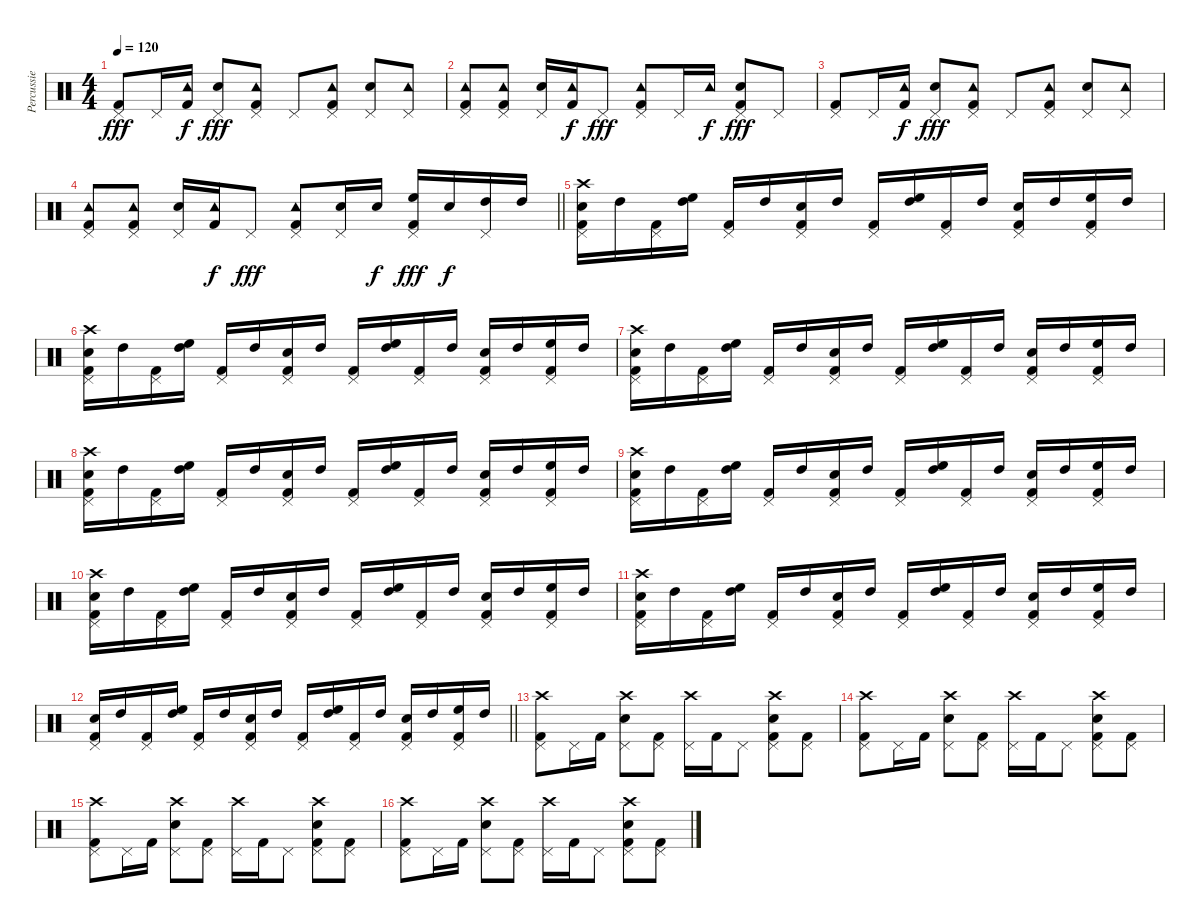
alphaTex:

\track ("Percussie" "Percussie") {instrument percussion}
\staff {score}
\articulation defaults
\ts (4 4)
\tempo 120
\clef neutral
\ks c
("Pedal Hi-Hat (hit)" "Kick (hit) 2").8{dy fff} "Pedal Hi-Hat (hit)".16 ("Tambourine (hit)" "Kick (hit) 2").16{dy f} ("Pedal Hi-Hat (hit)" "Snare (hit) 2").8{dy fff} ("Pedal Hi-Hat (hit)" "Tambourine (hit)" "Kick (hit) 2").8 "Pedal Hi-Hat (hit)".8 ("Pedal Hi-Hat (hit)" "Tambourine (hit)" "Kick (hit) 2").8 ("Pedal Hi-Hat (hit)" "Snare (hit) 2").8 ("Pedal Hi-Hat (hit)" "Tambourine (hit)").8 |
("Pedal Hi-Hat (hit)" "Tambourine (hit)" "Kick (hit) 2").8 ("Pedal Hi-Hat (hit)" "Tambourine (hit)" "Kick (hit) 2").8 ("Pedal Hi-Hat (hit)" "Snare (hit) 2").16 ("Tambourine (hit)" "Kick (hit) 2").16{dy f} "Pedal Hi-Hat (hit)".8{dy fff} ("Pedal Hi-Hat (hit)" "Tambourine (hit)" "Kick (hit) 2").8 "Pedal Hi-Hat (hit)".16 "Tambourine (hit)".16{dy f} ("Pedal Hi-Hat (hit)" "Snare (hit) 2" "Kick (hit) 2").8{dy fff} "Pedal Hi-Hat (hit)".8 |
("Pedal Hi-Hat (hit)" "Kick (hit) 2").8 "Pedal Hi-Hat (hit)".16 ("Tambourine (hit)" "Kick (hit) 2").16{dy f} ("Pedal Hi-Hat (hit)" "Snare (hit) 2").8{dy fff} ("Pedal Hi-Hat (hit)" "Tambourine (hit)" "Kick (hit) 2").8 "Pedal Hi-Hat (hit)".8 ("Pedal Hi-Hat (hit)" "Tambourine (hit)" "Kick (hit) 2").8 ("Pedal Hi-Hat (hit)" "Snare (hit) 2").8 ("Pedal Hi-Hat (hit)" "Tambourine (hit)").8 |
\barLineRight lightlight
("Pedal Hi-Hat (hit)" "Tambourine (hit)" "Kick (hit) 2").8 ("Pedal Hi-Hat (hit)" "Tambourine (hit)" "Kick (hit) 2").8 ("Pedal Hi-Hat (hit)" "Snare (hit) 2").16 ("Tambourine (hit)" "Kick (hit) 2").16{dy f} "Pedal Hi-Hat (hit)".8{dy fff} ("Pedal Hi-Hat (hit)" "Tambourine (hit)" "Kick (hit) 2").8 ("Pedal Hi-Hat (hit)" "Snare (hit) 2").16 "Snare (hit) 2".16{dy f} ("Pedal Hi-Hat (hit)" "High Floor Tom (hit)" "Kick (hit) 2").16{dy fff} "Snare (hit) 2".16{dy f} ("Pedal Hi-Hat (hit)" "High Tom (hit)").16 "High Tom (hit)".16 |
("Crash high (hit)" "Pedal Hi-Hat (hit)" "Snare (hit) 2" "Kick (hit) 2").16 "High Tom (hit)".16 ("Pedal Hi-Hat (hit)" "Kick (hit) 2").16 ("High Floor Tom (hit)" "High Tom (hit)").16 ("Pedal Hi-Hat (hit)" "Kick (hit) 2").16 "High Tom (hit)".16 ("Pedal Hi-Hat (hit)" "Snare (hit) 2" "Kick (hit) 2").16 "High Tom (hit)".16 ("Pedal Hi-Hat (hit)" "Kick (hit) 2").16 ("High Floor Tom (hit)" "High Tom (hit)").16 ("Pedal Hi-Hat (hit)" "Kick (hit) 2").16 "High Tom (hit)".16 ("Pedal Hi-Hat (hit)" "Snare (hit) 2" "Kick (hit) 2").16 "High Tom (hit)".16 ("Pedal Hi-Hat (hit)" "High Floor Tom (hit)" "Kick (hit) 2").16 "High Tom (hit)".16 |
("Crash high (hit)" "Pedal Hi-Hat (hit)" "Snare (hit) 2" "Kick (hit) 2").16 "High Tom (hit)".16 ("Pedal Hi-Hat (hit)" "Kick (hit) 2").16 ("High Floor Tom (hit)" "High Tom (hit)").16 ("Pedal Hi-Hat (hit)" "Kick (hit) 2").16 "High Tom (hit)".16 ("Pedal Hi-Hat (hit)" "Snare (hit) 2" "Kick (hit) 2").16 "High Tom (hit)".16 ("Pedal Hi-Hat (hit)" "Kick (hit) 2").16 ("High Floor Tom (hit)" "High Tom (hit)").16 ("Pedal Hi-Hat (hit)" "Kick (hit) 2").16 "High Tom (hit)".16 ("Pedal Hi-Hat (hit)" "Snare (hit) 2" "Kick (hit) 2").16 "High Tom (hit)".16 ("Pedal Hi-Hat (hit)" "High Floor Tom (hit)" "Kick (hit) 2").16 "High Tom (hit)".16 |
("Crash high (hit)" "Pedal Hi-Hat (hit)" "Snare (hit) 2" "Kick (hit) 2").16 "High Tom (hit)".16 ("Pedal Hi-Hat (hit)" "Kick (hit) 2").16 ("High Floor Tom (hit)" "High Tom (hit)").16 ("Pedal Hi-Hat (hit)" "Kick (hit) 2").16 "High Tom (hit)".16 ("Pedal Hi-Hat (hit)" "Snare (hit) 2" "Kick (hit) 2").16 "High Tom (hit)".16 ("Pedal Hi-Hat (hit)" "Kick (hit) 2").16 ("High Floor Tom (hit)" "High Tom (hit)").16 ("Pedal Hi-Hat (hit)" "Kick (hit) 2").16 "High Tom (hit)".16 ("Pedal Hi-Hat (hit)" "Snare (hit) 2" "Kick (hit) 2").16 "High Tom (hit)".16 ("Pedal Hi-Hat (hit)" "High Floor Tom (hit)" "Kick (hit) 2").16 "High Tom (hit)".16 |
("Crash high (hit)" "Pedal Hi-Hat (hit)" "Snare (hit) 2" "Kick (hit) 2").16 "High Tom (hit)".16 ("Pedal Hi-Hat (hit)" "Kick (hit) 2").16 ("High Floor Tom (hit)" "High Tom (hit)").16 ("Pedal Hi-Hat (hit)" "Kick (hit) 2").16 "High Tom (hit)".16 ("Pedal Hi-Hat (hit)" "Snare (hit) 2" "Kick (hit) 2").16 "High Tom (hit)".16 ("Pedal Hi-Hat (hit)" "Kick (hit) 2").16 ("High Floor Tom (hit)" "High Tom (hit)").16 ("Pedal Hi-Hat (hit)" "Kick (hit) 2").16 "High Tom (hit)".16 ("Pedal Hi-Hat (hit)" "Snare (hit) 2" "Kick (hit) 2").16 "High Tom (hit)".16 ("Pedal Hi-Hat (hit)" "High Floor Tom (hit)" "Kick (hit) 2").16 "High Tom (hit)".16 |
("Crash high (hit)" "Pedal Hi-Hat (hit)" "Snare (hit) 2" "Kick (hit) 2").16 "High Tom (hit)".16 ("Pedal Hi-Hat (hit)" "Kick (hit) 2").16 ("High Floor Tom (hit)" "High Tom (hit)").16 ("Pedal Hi-Hat (hit)" "Kick (hit) 2").16 "High Tom (hit)".16 ("Pedal Hi-Hat (hit)" "Snare (hit) 2" "Kick (hit) 2").16 "High Tom (hit)".16 ("Pedal Hi-Hat (hit)" "Kick (hit) 2").16 ("High Floor Tom (hit)" "High Tom (hit)").16 ("Pedal Hi-Hat (hit)" "Kick (hit) 2").16 "High Tom (hit)".16 ("Pedal Hi-Hat (hit)" "Snare (hit) 2" "Kick (hit) 2").16 "High Tom (hit)".16 ("Pedal Hi-Hat (hit)" "High Floor Tom (hit)" "Kick (hit) 2").16 "High Tom (hit)".16 |
("Crash high (hit)" "Pedal Hi-Hat (hit)" "Snare (hit) 2" "Kick (hit) 2").16 "High Tom (hit)".16 ("Pedal Hi-Hat (hit)" "Kick (hit) 2").16 ("High Floor Tom (hit)" "High Tom (hit)").16 ("Pedal Hi-Hat (hit)" "Kick (hit) 2").16 "High Tom (hit)".16 ("Pedal Hi-Hat (hit)" "Snare (hit) 2" "Kick (hit) 2").16 "High Tom (hit)".16 ("Pedal Hi-Hat (hit)" "Kick (hit) 2").16 ("High Floor Tom (hit)" "High Tom (hit)").16 ("Pedal Hi-Hat (hit)" "Kick (hit) 2").16 "High Tom (hit)".16 ("Pedal Hi-Hat (hit)" "Snare (hit) 2" "Kick (hit) 2").16 "High Tom (hit)".16 ("Pedal Hi-Hat (hit)" "High Floor Tom (hit)" "Kick (hit) 2").16 "High Tom (hit)".16 |
("Crash high (hit)" "Pedal Hi-Hat (hit)" "Snare (hit) 2" "Kick (hit) 2").16 "High Tom (hit)".16 ("Pedal Hi-Hat (hit)" "Kick (hit) 2").16 ("High Floor Tom (hit)" "High Tom (hit)").16 ("Pedal Hi-Hat (hit)" "Kick (hit) 2").16 "High Tom (hit)".16 ("Pedal Hi-Hat (hit)" "Snare (hit) 2" "Kick (hit) 2").16 "High Tom (hit)".16 ("Pedal Hi-Hat (hit)" "Kick (hit) 2").16 ("High Floor Tom (hit)" "High Tom (hit)").16 ("Pedal Hi-Hat (hit)" "Kick (hit) 2").16 "High Tom (hit)".16 ("Pedal Hi-Hat (hit)" "Snare (hit) 2" "Kick (hit) 2").16 "High Tom (hit)".16 ("Pedal Hi-Hat (hit)" "High Floor Tom (hit)" "Kick (hit) 2").16 "High Tom (hit)".16 |
\barLineRight lightlight
("Pedal Hi-Hat (hit)" "Snare (hit) 2" "Kick (hit) 2").16 "High Tom (hit)".16 ("Pedal Hi-Hat (hit)" "Kick (hit) 2").16 ("High Floor Tom (hit)" "High Tom (hit)").16 ("Pedal Hi-Hat (hit)" "Kick (hit) 2").16 "High Tom (hit)".16 ("Pedal Hi-Hat (hit)" "Snare (hit) 2" "Kick (hit) 2").16 "High Tom (hit)".16 ("Pedal Hi-Hat (hit)" "Kick (hit) 2").16 ("High Floor Tom (hit)" "High Tom (hit)").16 ("Pedal Hi-Hat (hit)" "Kick (hit) 2").16 "High Tom (hit)".16 ("Pedal Hi-Hat (hit)" "Snare (hit) 2" "Kick (hit) 2").16 "High Tom (hit)".16 ("Pedal Hi-Hat (hit)" "High Floor Tom (hit)" "Kick (hit) 2").16 "High Tom (hit)".16 |
("Crash high (hit)" "Pedal Hi-Hat (hit)" "Kick (hit) 2").8 "Pedal Hi-Hat (hit)".16 "Kick (hit) 2".16 ("Crash high (hit)" "Pedal Hi-Hat (hit)" "Snare (hit) 2").8 ("Pedal Hi-Hat (hit)" "Kick (hit) 2").8 ("Crash high (hit)" "Pedal Hi-Hat (hit)").16 "Kick (hit) 2".16 "Pedal Hi-Hat (hit)".8 ("Crash high (hit)" "Pedal Hi-Hat (hit)" "Snare (hit) 2" "Kick (hit) 2").8 ("Pedal Hi-Hat (hit)" "Kick (hit) 2").8 |
("Crash high (hit)" "Pedal Hi-Hat (hit)" "Kick (hit) 2").8 "Pedal Hi-Hat (hit)".16 "Kick (hit) 2".16 ("Crash high (hit)" "Pedal Hi-Hat (hit)" "Snare (hit) 2").8 ("Pedal Hi-Hat (hit)" "Kick (hit) 2").8 ("Crash high (hit)" "Pedal Hi-Hat (hit)").16 "Kick (hit) 2".16 "Pedal Hi-Hat (hit)".8 ("Crash high (hit)" "Pedal Hi-Hat (hit)" "Snare (hit) 2" "Kick (hit) 2").8 ("Pedal Hi-Hat (hit)" "Kick (hit) 2").8 |
("Crash high (hit)" "Pedal Hi-Hat (hit)" "Kick (hit) 2").8 "Pedal Hi-Hat (hit)".16 "Kick (hit) 2".16 ("Crash high (hit)" "Pedal Hi-Hat (hit)" "Snare (hit) 2").8 ("Pedal Hi-Hat (hit)" "Kick (hit) 2").8 ("Crash high (hit)" "Pedal Hi-Hat (hit)").16 "Kick (hit) 2".16 "Pedal Hi-Hat (hit)".8 ("Crash high (hit)" "Pedal Hi-Hat (hit)" "Snare (hit) 2" "Kick (hit) 2").8 ("Pedal Hi-Hat (hit)" "Kick (hit) 2").8 |
("Crash high (hit)" "Pedal Hi-Hat (hit)" "Kick (hit) 2").8 "Pedal Hi-Hat (hit)".16 "Kick (hit) 2".16 ("Crash high (hit)" "Pedal Hi-Hat (hit)" "Snare (hit) 2").8 ("Pedal Hi-Hat (hit)" "Kick (hit) 2").8 ("Crash high (hit)" "Pedal Hi-Hat (hit)").16 "Kick (hit) 2".16 "Pedal Hi-Hat (hit)".8 ("Crash high (hit)" "Pedal Hi-Hat (hit)" "Snare (hit) 2" "Kick (hit) 2").8 ("Pedal Hi-Hat (hit)" "Kick (hit) 2").8
